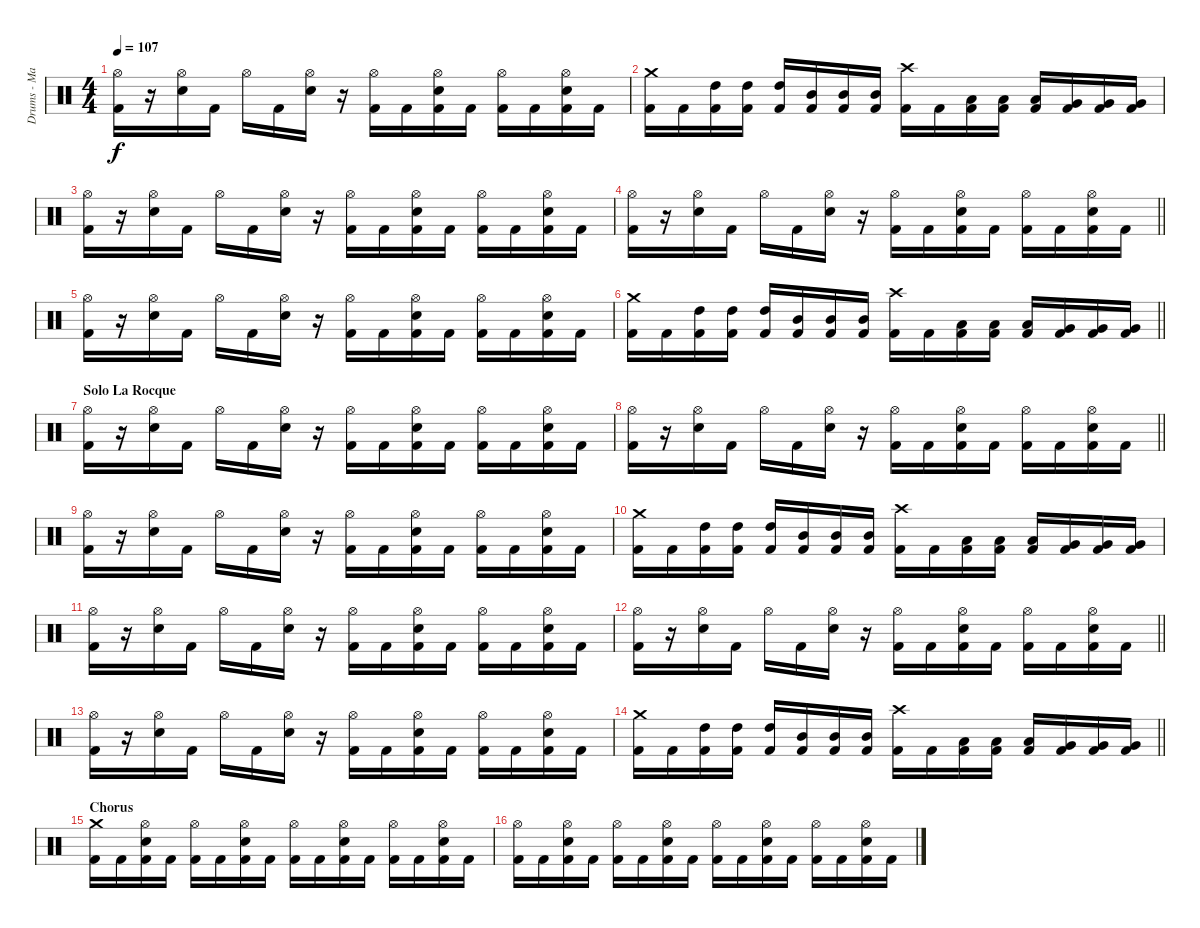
\track ("Drums - Matt Thompson" "Drums - Ma") {instrument percussion}
\staff {score}
\articulation defaults
\ts (4 4)
\tempo 107
\clef neutral
\ks c
("Hi-Hat (open)" "Kick (hit) 2").16{dy f} r.16 ("Hi-Hat (open)" "Snare (hit) 2").16 "Kick (hit) 2".16 "Hi-Hat (open)".16 "Kick (hit) 2".16 ("Hi-Hat (open)" "Snare (hit) 2").16 r.16 ("Hi-Hat (open)" "Kick (hit) 2").16 "Kick (hit) 2".16 ("Hi-Hat (open)" "Snare (hit) 2" "Kick (hit) 2").16 "Kick (hit) 2".16 ("Hi-Hat (open)" "Kick (hit) 2").16 "Kick (hit) 2".16 ("Hi-Hat (open)" "Snare (hit) 2" "Kick (hit) 2").16 "Kick (hit) 2".16 |
("Crash medium (hit)" "Kick (hit) 2").16 "Kick (hit) 2".16 ("High Tom (hit)" "Kick (hit) 2").16 ("High Tom (hit)" "Kick (hit) 2").16 ("High Tom (hit)" "Kick (hit) 2").16 ("Mid Tom (hit)" "Kick (hit) 2").16 ("Mid Tom (hit)" "Kick (hit) 2").16 ("Mid Tom (hit)" "Kick (hit) 2").16 ("Crash high (hit)" "Kick (hit) 2").16 "Kick (hit) 2".16 ("Low Tom (hit)" "Kick (hit) 2").16 ("Low Tom (hit)" "Kick (hit) 2").16 ("Low Tom (hit)" "Kick (hit) 2").16 ("Very Low Tom (hit)" "Kick (hit) 2").16 ("Very Low Tom (hit)" "Kick (hit) 2").16 ("Very Low Tom (hit)" "Kick (hit) 2").16 |
("Hi-Hat (open)" "Kick (hit) 2").16 r.16 ("Hi-Hat (open)" "Snare (hit) 2").16 "Kick (hit) 2".16 "Hi-Hat (open)".16 "Kick (hit) 2".16 ("Hi-Hat (open)" "Snare (hit) 2").16 r.16 ("Hi-Hat (open)" "Kick (hit) 2").16 "Kick (hit) 2".16 ("Hi-Hat (open)" "Snare (hit) 2" "Kick (hit) 2").16 "Kick (hit) 2".16 ("Hi-Hat (open)" "Kick (hit) 2").16 "Kick (hit) 2".16 ("Hi-Hat (open)" "Snare (hit) 2" "Kick (hit) 2").16 "Kick (hit) 2".16 |
\barLineRight lightlight
("Hi-Hat (open)" "Kick (hit) 2").16 r.16 ("Hi-Hat (open)" "Snare (hit) 2").16 "Kick (hit) 2".16 "Hi-Hat (open)".16 "Kick (hit) 2".16 ("Hi-Hat (open)" "Snare (hit) 2").16 r.16 ("Hi-Hat (open)" "Kick (hit) 2").16 "Kick (hit) 2".16 ("Hi-Hat (open)" "Snare (hit) 2" "Kick (hit) 2").16 "Kick (hit) 2".16 ("Hi-Hat (open)" "Kick (hit) 2").16 "Kick (hit) 2".16 ("Hi-Hat (open)" "Snare (hit) 2" "Kick (hit) 2").16 "Kick (hit) 2".16 |
("Hi-Hat (open)" "Kick (hit) 2").16 r.16 ("Hi-Hat (open)" "Snare (hit) 2").16 "Kick (hit) 2".16 "Hi-Hat (open)".16 "Kick (hit) 2".16 ("Hi-Hat (open)" "Snare (hit) 2").16 r.16 ("Hi-Hat (open)" "Kick (hit) 2").16 "Kick (hit) 2".16 ("Hi-Hat (open)" "Snare (hit) 2" "Kick (hit) 2").16 "Kick (hit) 2".16 ("Hi-Hat (open)" "Kick (hit) 2").16 "Kick (hit) 2".16 ("Hi-Hat (open)" "Snare (hit) 2" "Kick (hit) 2").16 "Kick (hit) 2".16 |
\barLineRight lightlight
("Crash medium (hit)" "Kick (hit) 2").16 "Kick (hit) 2".16 ("High Tom (hit)" "Kick (hit) 2").16 ("High Tom (hit)" "Kick (hit) 2").16 ("High Tom (hit)" "Kick (hit) 2").16 ("Mid Tom (hit)" "Kick (hit) 2").16 ("Mid Tom (hit)" "Kick (hit) 2").16 ("Mid Tom (hit)" "Kick (hit) 2").16 ("Crash high (hit)" "Kick (hit) 2").16 "Kick (hit) 2".16 ("Low Tom (hit)" "Kick (hit) 2").16 ("Low Tom (hit)" "Kick (hit) 2").16 ("Low Tom (hit)" "Kick (hit) 2").16 ("Very Low Tom (hit)" "Kick (hit) 2").16 ("Very Low Tom (hit)" "Kick (hit) 2").16 ("Very Low Tom (hit)" "Kick (hit) 2").16 |
\section ("" "Solo La Rocque")
("Hi-Hat (open)" "Kick (hit) 2").16 r.16 ("Hi-Hat (open)" "Snare (hit) 2").16 "Kick (hit) 2".16 "Hi-Hat (open)".16 "Kick (hit) 2".16 ("Hi-Hat (open)" "Snare (hit) 2").16 r.16 ("Hi-Hat (open)" "Kick (hit) 2").16 "Kick (hit) 2".16 ("Hi-Hat (open)" "Snare (hit) 2" "Kick (hit) 2").16 "Kick (hit) 2".16 ("Hi-Hat (open)" "Kick (hit) 2").16 "Kick (hit) 2".16 ("Hi-Hat (open)" "Snare (hit) 2" "Kick (hit) 2").16 "Kick (hit) 2".16 |
\barLineRight lightlight
("Hi-Hat (open)" "Kick (hit) 2").16 r.16 ("Hi-Hat (open)" "Snare (hit) 2").16 "Kick (hit) 2".16 "Hi-Hat (open)".16 "Kick (hit) 2".16 ("Hi-Hat (open)" "Snare (hit) 2").16 r.16 ("Hi-Hat (open)" "Kick (hit) 2").16 "Kick (hit) 2".16 ("Hi-Hat (open)" "Snare (hit) 2" "Kick (hit) 2").16 "Kick (hit) 2".16 ("Hi-Hat (open)" "Kick (hit) 2").16 "Kick (hit) 2".16 ("Hi-Hat (open)" "Snare (hit) 2" "Kick (hit) 2").16 "Kick (hit) 2".16 |
("Hi-Hat (open)" "Kick (hit) 2").16 r.16 ("Hi-Hat (open)" "Snare (hit) 2").16 "Kick (hit) 2".16 "Hi-Hat (open)".16 "Kick (hit) 2".16 ("Hi-Hat (open)" "Snare (hit) 2").16 r.16 ("Hi-Hat (open)" "Kick (hit) 2").16 "Kick (hit) 2".16 ("Hi-Hat (open)" "Snare (hit) 2" "Kick (hit) 2").16 "Kick (hit) 2".16 ("Hi-Hat (open)" "Kick (hit) 2").16 "Kick (hit) 2".16 ("Hi-Hat (open)" "Snare (hit) 2" "Kick (hit) 2").16 "Kick (hit) 2".16 |
("Crash medium (hit)" "Kick (hit) 2").16 "Kick (hit) 2".16 ("High Tom (hit)" "Kick (hit) 2").16 ("High Tom (hit)" "Kick (hit) 2").16 ("High Tom (hit)" "Kick (hit) 2").16 ("Mid Tom (hit)" "Kick (hit) 2").16 ("Mid Tom (hit)" "Kick (hit) 2").16 ("Mid Tom (hit)" "Kick (hit) 2").16 ("Crash high (hit)" "Kick (hit) 2").16 "Kick (hit) 2".16 ("Low Tom (hit)" "Kick (hit) 2").16 ("Low Tom (hit)" "Kick (hit) 2").16 ("Low Tom (hit)" "Kick (hit) 2").16 ("Very Low Tom (hit)" "Kick (hit) 2").16 ("Very Low Tom (hit)" "Kick (hit) 2").16 ("Very Low Tom (hit)" "Kick (hit) 2").16 |
("Hi-Hat (open)" "Kick (hit) 2").16 r.16 ("Hi-Hat (open)" "Snare (hit) 2").16 "Kick (hit) 2".16 "Hi-Hat (open)".16 "Kick (hit) 2".16 ("Hi-Hat (open)" "Snare (hit) 2").16 r.16 ("Hi-Hat (open)" "Kick (hit) 2").16 "Kick (hit) 2".16 ("Hi-Hat (open)" "Snare (hit) 2" "Kick (hit) 2").16 "Kick (hit) 2".16 ("Hi-Hat (open)" "Kick (hit) 2").16 "Kick (hit) 2".16 ("Hi-Hat (open)" "Snare (hit) 2" "Kick (hit) 2").16 "Kick (hit) 2".16 |
\barLineRight lightlight
("Hi-Hat (open)" "Kick (hit) 2").16 r.16 ("Hi-Hat (open)" "Snare (hit) 2").16 "Kick (hit) 2".16 "Hi-Hat (open)".16 "Kick (hit) 2".16 ("Hi-Hat (open)" "Snare (hit) 2").16 r.16 ("Hi-Hat (open)" "Kick (hit) 2").16 "Kick (hit) 2".16 ("Hi-Hat (open)" "Snare (hit) 2" "Kick (hit) 2").16 "Kick (hit) 2".16 ("Hi-Hat (open)" "Kick (hit) 2").16 "Kick (hit) 2".16 ("Hi-Hat (open)" "Snare (hit) 2" "Kick (hit) 2").16 "Kick (hit) 2".16 |
("Hi-Hat (open)" "Kick (hit) 2").16 r.16 ("Hi-Hat (open)" "Snare (hit) 2").16 "Kick (hit) 2".16 "Hi-Hat (open)".16 "Kick (hit) 2".16 ("Hi-Hat (open)" "Snare (hit) 2").16 r.16 ("Hi-Hat (open)" "Kick (hit) 2").16 "Kick (hit) 2".16 ("Hi-Hat (open)" "Snare (hit) 2" "Kick (hit) 2").16 "Kick (hit) 2".16 ("Hi-Hat (open)" "Kick (hit) 2").16 "Kick (hit) 2".16 ("Hi-Hat (open)" "Snare (hit) 2" "Kick (hit) 2").16 "Kick (hit) 2".16 |
\barLineRight lightlight
("Crash medium (hit)" "Kick (hit) 2").16 "Kick (hit) 2".16 ("High Tom (hit)" "Kick (hit) 2").16 ("High Tom (hit)" "Kick (hit) 2").16 ("High Tom (hit)" "Kick (hit) 2").16 ("Mid Tom (hit)" "Kick (hit) 2").16 ("Mid Tom (hit)" "Kick (hit) 2").16 ("Mid Tom (hit)" "Kick (hit) 2").16 ("Crash high (hit)" "Kick (hit) 2").16 "Kick (hit) 2".16 ("Low Tom (hit)" "Kick (hit) 2").16 ("Low Tom (hit)" "Kick (hit) 2").16 ("Low Tom (hit)" "Kick (hit) 2").16 ("Very Low Tom (hit)" "Kick (hit) 2").16 ("Very Low Tom (hit)" "Kick (hit) 2").16 ("Very Low Tom (hit)" "Kick (hit) 2").16 |
\section ("" "Chorus")
("Crash medium (hit)" "Kick (hit) 2").16 "Kick (hit) 2".16 ("Hi-Hat (open)" "Snare (hit) 2" "Kick (hit) 2").16 "Kick (hit) 2".16 ("Hi-Hat (open)" "Kick (hit) 2").16 "Kick (hit) 2".16 ("Hi-Hat (open)" "Snare (hit) 2" "Kick (hit) 2").16 "Kick (hit) 2".16 ("Hi-Hat (open)" "Kick (hit) 2").16 "Kick (hit) 2".16 ("Hi-Hat (open)" "Snare (hit) 2" "Kick (hit) 2").16 "Kick (hit) 2".16 ("Hi-Hat (open)" "Kick (hit) 2").16 "Kick (hit) 2".16 ("Hi-Hat (open)" "Snare (hit) 2" "Kick (hit) 2").16 "Kick (hit) 2".16 |
("Hi-Hat (open)" "Kick (hit) 2").16 "Kick (hit) 2".16 ("Hi-Hat (open)" "Snare (hit) 2" "Kick (hit) 2").16 "Kick (hit) 2".16 ("Hi-Hat (open)" "Kick (hit) 2").16 "Kick (hit) 2".16 ("Hi-Hat (open)" "Snare (hit) 2" "Kick (hit) 2").16 "Kick (hit) 2".16 ("Hi-Hat (open)" "Kick (hit) 2").16 "Kick (hit) 2".16 ("Hi-Hat (open)" "Snare (hit) 2" "Kick (hit) 2").16 "Kick (hit) 2".16 ("Hi-Hat (open)" "Kick (hit) 2").16 "Kick (hit) 2".16 ("Hi-Hat (open)" "Snare (hit) 2" "Kick (hit) 2").16 "Kick (hit) 2".16
